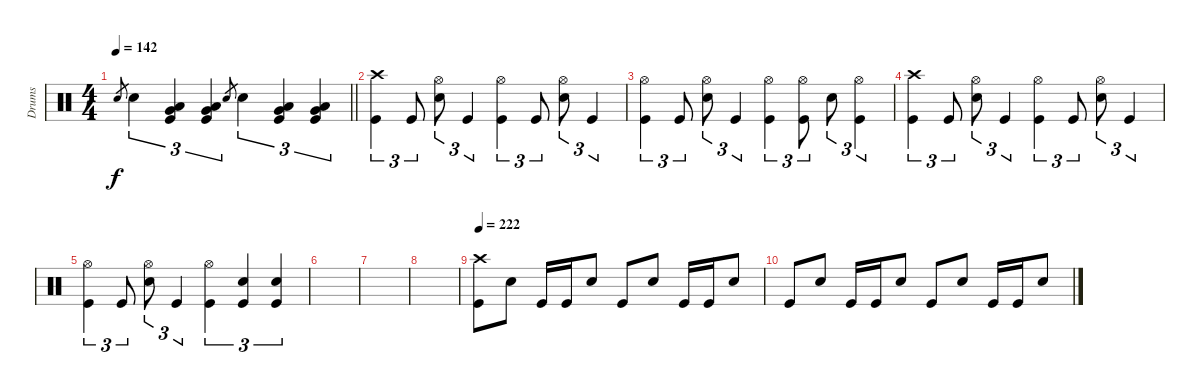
\track ("Drums" "Drums") {instrument percussion}
\staff
\articulation defaults
\ts (4 4)
\tempo 142
\clef neutral
\barLineRight lightlight
\ks c "Electric Snare (hit)".8{gr dy f} "Electric Snare (hit)".4{tu (3 2)}
("Very Low Tom (hit)" "Low Floor Tom (hit)" "Kick (hit)").4{tu (3 2)} ("Very Low Tom (hit)" "Low Floor Tom (hit)" "Kick (hit)").4{tu (3 2)} "Electric Snare (hit)".8{gr} "Electric Snare (hit)".4{tu (3 2)} ("Very Low Tom (hit)" "Low Floor Tom (hit)" "Kick (hit)").4{tu (3 2)} ("Very Low Tom (hit)" "Low Floor Tom (hit)" "Kick (hit)").4{tu (3 2)} |
\section ("" "")
("Crash high (hit)" "Kick (hit)").4{tu (3 2)} "Kick (hit)".8{tu (3 2)} ("Hi-Hat (open)" "Electric Snare (hit)").8{tu (3 2)} "Kick (hit)".4{tu (3 2)} ("Hi-Hat (open)" "Kick (hit)").4{tu (3 2)} "Kick (hit)".8{tu (3 2)} ("Hi-Hat (open)" "Electric Snare (hit)").8{tu (3 2)} "Kick (hit)".4{tu (3 2)} |
("Hi-Hat (open)" "Kick (hit)").4{tu (3 2)} "Kick (hit)".8{tu (3 2)} ("Hi-Hat (open)" "Electric Snare (hit)").8{tu (3 2)} "Kick (hit)".4{tu (3 2)} ("Hi-Hat (open)" "Kick (hit)").4{tu (3 2)} ("Hi-Hat (open)" "Kick (hit)").8{tu (3 2)} "Electric Snare (hit)".8{tu (3 2)} ("Hi-Hat (open)" "Kick (hit)").4{tu (3 2)} |
("Crash high (hit)" "Kick (hit)").4{tu (3 2)} "Kick (hit)".8{tu (3 2)} ("Hi-Hat (open)" "Electric Snare (hit)").8{tu (3 2)} "Kick (hit)".4{tu (3 2)} ("Hi-Hat (open)" "Kick (hit)").4{tu (3 2)} "Kick (hit)".8{tu (3 2)} ("Hi-Hat (open)" "Electric Snare (hit)").8{tu (3 2)} "Kick (hit)".4{tu (3 2)} |
("Hi-Hat (open)" "Kick (hit)").4{tu (3 2)} "Kick (hit)".8{tu (3 2)} ("Hi-Hat (open)" "Electric Snare (hit)").8{tu (3 2)} "Kick (hit)".4{tu (3 2)} ("Hi-Hat (open)" "Kick (hit)").4{tu (3 2)} ("Electric Snare (hit)" "Kick (hit)").4{tu (3 2)} ("Electric Snare (hit)" "Kick (hit)").4{tu (3 2)} |
|
|
|
\tempo 222
("Crash high (hit)" "Kick (hit)").8 "Electric Snare (hit)".8 "Kick (hit)".16 "Kick (hit)".16 "Electric Snare (hit)".8 "Kick (hit)".8 "Electric Snare (hit)".8 "Kick (hit)".16 "Kick (hit)".16 "Electric Snare (hit)".8 |
"Kick (hit)".8 "Electric Snare (hit)".8 "Kick (hit)".16 "Kick (hit)".16 "Electric Snare (hit)".8 "Kick (hit)".8 "Electric Snare (hit)".8 "Kick (hit)".16 "Kick (hit)".16 "Electric Snare (hit)".8
